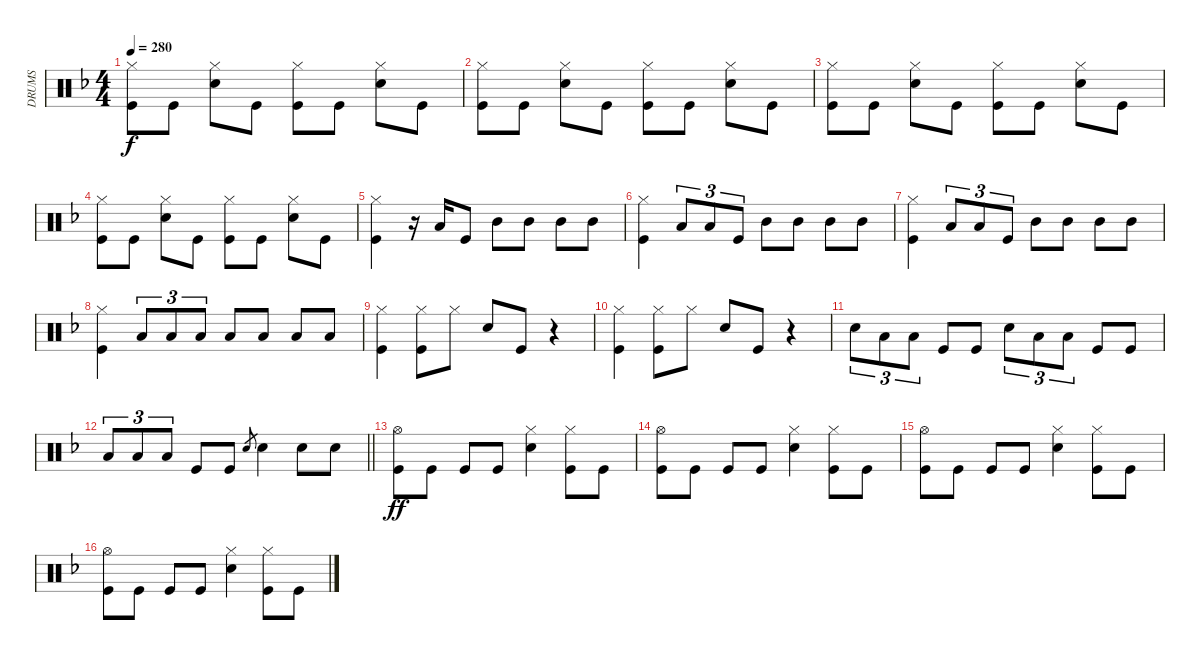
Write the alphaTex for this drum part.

\track ("DRUMS" "DRUMS") {instrument percussion}
\staff {score}
\articulation defaults
\ts (4 4)
\tempo 280
\clef neutral
\ks dminor
("Hi-Hat (closed)" "Kick (hit)").8{dy f} "Kick (hit)".8 ("Hi-Hat (closed)" "Snare (hit) 2").8 "Kick (hit)".8 ("Hi-Hat (closed)" "Kick (hit)").8 "Kick (hit)".8 ("Hi-Hat (closed)" "Snare (hit) 2").8 "Kick (hit)".8 |
("Hi-Hat (closed)" "Kick (hit)").8 "Kick (hit)".8 ("Hi-Hat (closed)" "Snare (hit) 2").8 "Kick (hit)".8 ("Hi-Hat (closed)" "Kick (hit)").8 "Kick (hit)".8 ("Hi-Hat (closed)" "Snare (hit) 2").8 "Kick (hit)".8 |
("Hi-Hat (closed)" "Kick (hit)").8 "Kick (hit)".8 ("Hi-Hat (closed)" "Snare (hit) 2").8 "Kick (hit)".8 ("Hi-Hat (closed)" "Kick (hit)").8 "Kick (hit)".8 ("Hi-Hat (closed)" "Snare (hit) 2").8 "Kick (hit)".8 |
("Hi-Hat (closed)" "Kick (hit)").8 "Kick (hit)".8 ("Hi-Hat (closed)" "Snare (hit) 2").8 "Kick (hit)".8 ("Hi-Hat (closed)" "Kick (hit)").8 "Kick (hit)".8 ("Hi-Hat (closed)" "Snare (hit) 2").8 "Kick (hit)".8 |
("Hi-Hat (closed)" "Kick (hit)").4 r.16 "Low Tom (hit)".16 "Kick (hit)".8 "Mid Tom (hit)".8 "Mid Tom (hit)".8 "Mid Tom (hit)".8 "Mid Tom (hit)".8 |
("Hi-Hat (closed)" "Kick (hit)").4 "Low Tom (hit)".8{tu (3 2)} "Low Tom (hit)".8{tu (3 2)} "Kick (hit)".8{tu (3 2)} "Mid Tom (hit)".8 "Mid Tom (hit)".8 "Mid Tom (hit)".8 "Mid Tom (hit)".8 |
("Hi-Hat (closed)" "Kick (hit)").4 "Low Tom (hit)".8{tu (3 2)} "Low Tom (hit)".8{tu (3 2)} "Kick (hit)".8{tu (3 2)} "Mid Tom (hit)".8 "Mid Tom (hit)".8 "Mid Tom (hit)".8 "Mid Tom (hit)".8 |
("Hi-Hat (closed)" "Kick (hit)").4 "Low Tom (hit)".8{tu (3 2)} "Low Tom (hit)".8{tu (3 2)} "Low Tom (hit)".8{tu (3 2)} "Low Tom (hit)".8 "Low Tom (hit)".8 "Low Tom (hit)".8 "Low Tom (hit)".8 |
("Hi-Hat (closed)" "Kick (hit)").4 ("Hi-Hat (closed)" "Kick (hit)").8 "Hi-Hat (closed)".8 "Snare (hit) 2".8 "Kick (hit)".8 r.4 |
("Hi-Hat (closed)" "Kick (hit)").4 ("Hi-Hat (closed)" "Kick (hit)").8 "Hi-Hat (closed)".8 "Snare (hit) 2".8 "Kick (hit)".8 r.4 |
"Snare (hit) 2".8{tu (3 2)} "Low Tom (hit)".8{tu (3 2)} "Low Tom (hit)".8{tu (3 2)} "Kick (hit)".8 "Kick (hit)".8 "Snare (hit) 2".8{tu (3 2)} "Low Tom (hit)".8{tu (3 2)} "Low Tom (hit)".8{tu (3 2)} "Kick (hit)".8 "Kick (hit)".8 |
\barLineRight lightlight "Low Tom (hit)".8{tu (3 2)} "Low Tom (hit)".8{tu (3 2)} "Low Tom (hit)".8{tu (3 2)} "Kick (hit)".8 "Kick (hit)".8 "Snare (hit) 2".8{gr} "Snare (hit) 2".4 "Snare (hit) 2".8 "Snare (hit) 2".8
|
("Hi-Hat (open)" "Kick (hit)").8{dy ff} "Kick (hit)".8 "Kick (hit)".8 "Kick (hit)".8 ("Hi-Hat (closed)" "Snare (hit) 2").4 ("Hi-Hat (closed)" "Kick (hit)").8 "Kick (hit)".8 |
("Hi-Hat (open)" "Kick (hit)").8 "Kick (hit)".8 "Kick (hit)".8 "Kick (hit)".8 ("Hi-Hat (closed)" "Snare (hit) 2").4 ("Hi-Hat (closed)" "Kick (hit)").8 "Kick (hit)".8 |
("Hi-Hat (open)" "Kick (hit)").8 "Kick (hit)".8 "Kick (hit)".8 "Kick (hit)".8 ("Hi-Hat (closed)" "Snare (hit) 2").4 ("Hi-Hat (closed)" "Kick (hit)").8 "Kick (hit)".8 |
("Hi-Hat (open)" "Kick (hit)").8 "Kick (hit)".8 "Kick (hit)".8 "Kick (hit)".8 ("Hi-Hat (closed)" "Snare (hit) 2").4 ("Hi-Hat (closed)" "Kick (hit)").8 "Kick (hit)".8
